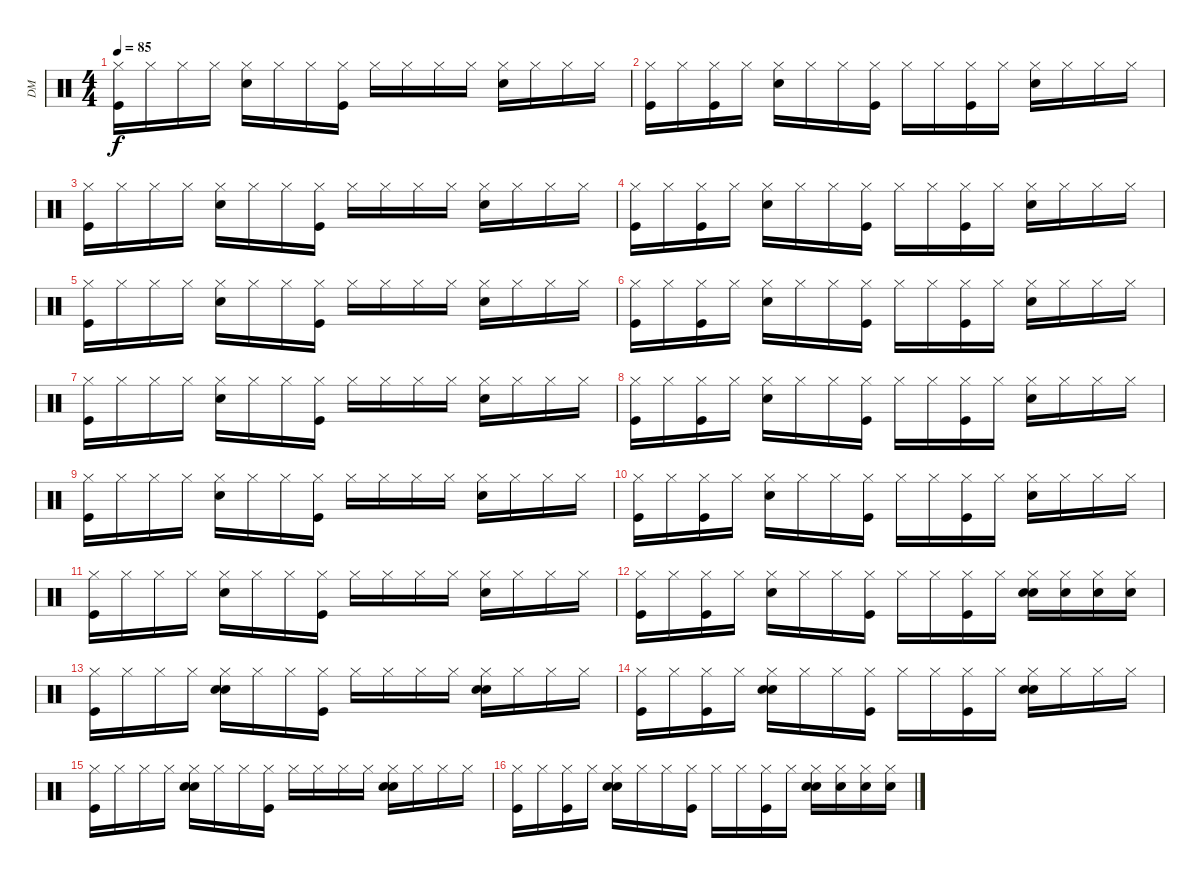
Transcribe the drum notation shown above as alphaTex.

\track ("DM" "DM") {instrument percussion}
\staff {score}
\articulation defaults
\ts (4 4)
\tempo 85
\clef neutral
\ks c
("Hi-Hat (closed)" "Kick (hit)").16{dy f} "Hi-Hat (closed)".16 "Hi-Hat (closed)".16 "Hi-Hat (closed)".16 ("Hi-Hat (closed)" "Electric Snare (hit)").16 "Hi-Hat (closed)".16 "Hi-Hat (closed)".16 ("Hi-Hat (closed)" "Kick (hit)").16 "Hi-Hat (closed)".16 "Hi-Hat (closed)".16 "Hi-Hat (closed)".16 "Hi-Hat (closed)".16 ("Hi-Hat (closed)" "Electric Snare (hit)").16 "Hi-Hat (closed)".16 "Hi-Hat (closed)".16 "Hi-Hat (closed)".16 |
("Hi-Hat (closed)" "Kick (hit)").16 "Hi-Hat (closed)".16 ("Hi-Hat (closed)" "Kick (hit)").16 "Hi-Hat (closed)".16 ("Hi-Hat (closed)" "Electric Snare (hit)").16 "Hi-Hat (closed)".16 "Hi-Hat (closed)".16 ("Hi-Hat (closed)" "Kick (hit)").16 "Hi-Hat (closed)".16 "Hi-Hat (closed)".16 ("Hi-Hat (closed)" "Kick (hit)").16 "Hi-Hat (closed)".16 ("Hi-Hat (closed)" "Electric Snare (hit)").16 "Hi-Hat (closed)".16 "Hi-Hat (closed)".16 "Hi-Hat (closed)".16 |
("Hi-Hat (closed)" "Kick (hit)").16 "Hi-Hat (closed)".16 "Hi-Hat (closed)".16 "Hi-Hat (closed)".16 ("Hi-Hat (closed)" "Electric Snare (hit)").16 "Hi-Hat (closed)".16 "Hi-Hat (closed)".16 ("Hi-Hat (closed)" "Kick (hit)").16 "Hi-Hat (closed)".16 "Hi-Hat (closed)".16 "Hi-Hat (closed)".16 "Hi-Hat (closed)".16 ("Hi-Hat (closed)" "Electric Snare (hit)").16 "Hi-Hat (closed)".16 "Hi-Hat (closed)".16 "Hi-Hat (closed)".16 |
("Hi-Hat (closed)" "Kick (hit)").16 "Hi-Hat (closed)".16 ("Hi-Hat (closed)" "Kick (hit)").16 "Hi-Hat (closed)".16 ("Hi-Hat (closed)" "Electric Snare (hit)").16 "Hi-Hat (closed)".16 "Hi-Hat (closed)".16 ("Hi-Hat (closed)" "Kick (hit)").16 "Hi-Hat (closed)".16 "Hi-Hat (closed)".16 ("Hi-Hat (closed)" "Kick (hit)").16 "Hi-Hat (closed)".16 ("Hi-Hat (closed)" "Electric Snare (hit)").16 "Hi-Hat (closed)".16 "Hi-Hat (closed)".16 "Hi-Hat (closed)".16 |
("Hi-Hat (closed)" "Kick (hit)").16 "Hi-Hat (closed)".16 "Hi-Hat (closed)".16 "Hi-Hat (closed)".16 ("Hi-Hat (closed)" "Electric Snare (hit)").16 "Hi-Hat (closed)".16 "Hi-Hat (closed)".16 ("Hi-Hat (closed)" "Kick (hit)").16 "Hi-Hat (closed)".16 "Hi-Hat (closed)".16 "Hi-Hat (closed)".16 "Hi-Hat (closed)".16 ("Hi-Hat (closed)" "Electric Snare (hit)").16 "Hi-Hat (closed)".16 "Hi-Hat (closed)".16 "Hi-Hat (closed)".16 |
("Hi-Hat (closed)" "Kick (hit)").16 "Hi-Hat (closed)".16 ("Hi-Hat (closed)" "Kick (hit)").16 "Hi-Hat (closed)".16 ("Hi-Hat (closed)" "Electric Snare (hit)").16 "Hi-Hat (closed)".16 "Hi-Hat (closed)".16 ("Hi-Hat (closed)" "Kick (hit)").16 "Hi-Hat (closed)".16 "Hi-Hat (closed)".16 ("Hi-Hat (closed)" "Kick (hit)").16 "Hi-Hat (closed)".16 ("Hi-Hat (closed)" "Electric Snare (hit)").16 "Hi-Hat (closed)".16 "Hi-Hat (closed)".16 "Hi-Hat (closed)".16 |
("Hi-Hat (closed)" "Kick (hit)").16 "Hi-Hat (closed)".16 "Hi-Hat (closed)".16 "Hi-Hat (closed)".16 ("Hi-Hat (closed)" "Electric Snare (hit)").16 "Hi-Hat (closed)".16 "Hi-Hat (closed)".16 ("Hi-Hat (closed)" "Kick (hit)").16 "Hi-Hat (closed)".16 "Hi-Hat (closed)".16 "Hi-Hat (closed)".16 "Hi-Hat (closed)".16 ("Hi-Hat (closed)" "Electric Snare (hit)").16 "Hi-Hat (closed)".16 "Hi-Hat (closed)".16 "Hi-Hat (closed)".16 |
("Hi-Hat (closed)" "Kick (hit)").16 "Hi-Hat (closed)".16 ("Hi-Hat (closed)" "Kick (hit)").16 "Hi-Hat (closed)".16 ("Hi-Hat (closed)" "Electric Snare (hit)").16 "Hi-Hat (closed)".16 "Hi-Hat (closed)".16 ("Hi-Hat (closed)" "Kick (hit)").16 "Hi-Hat (closed)".16 "Hi-Hat (closed)".16 ("Hi-Hat (closed)" "Kick (hit)").16 "Hi-Hat (closed)".16 ("Hi-Hat (closed)" "Electric Snare (hit)").16 "Hi-Hat (closed)".16 "Hi-Hat (closed)".16 "Hi-Hat (closed)".16 |
("Hi-Hat (closed)" "Kick (hit)").16 "Hi-Hat (closed)".16 "Hi-Hat (closed)".16 "Hi-Hat (closed)".16 ("Hi-Hat (closed)" "Electric Snare (hit)").16 "Hi-Hat (closed)".16 "Hi-Hat (closed)".16 ("Hi-Hat (closed)" "Kick (hit)").16 "Hi-Hat (closed)".16 "Hi-Hat (closed)".16 "Hi-Hat (closed)".16 "Hi-Hat (closed)".16 ("Hi-Hat (closed)" "Electric Snare (hit)").16 "Hi-Hat (closed)".16 "Hi-Hat (closed)".16 "Hi-Hat (closed)".16 |
("Hi-Hat (closed)" "Kick (hit)").16 "Hi-Hat (closed)".16 ("Hi-Hat (closed)" "Kick (hit)").16 "Hi-Hat (closed)".16 ("Hi-Hat (closed)" "Electric Snare (hit)").16 "Hi-Hat (closed)".16 "Hi-Hat (closed)".16 ("Hi-Hat (closed)" "Kick (hit)").16 "Hi-Hat (closed)".16 "Hi-Hat (closed)".16 ("Hi-Hat (closed)" "Kick (hit)").16 "Hi-Hat (closed)".16 ("Hi-Hat (closed)" "Electric Snare (hit)").16 "Hi-Hat (closed)".16 "Hi-Hat (closed)".16 "Hi-Hat (closed)".16 |
("Hi-Hat (closed)" "Kick (hit)").16 "Hi-Hat (closed)".16 "Hi-Hat (closed)".16 "Hi-Hat (closed)".16 ("Hi-Hat (closed)" "Electric Snare (hit)").16 "Hi-Hat (closed)".16 "Hi-Hat (closed)".16 ("Hi-Hat (closed)" "Kick (hit)").16 "Hi-Hat (closed)".16 "Hi-Hat (closed)".16 "Hi-Hat (closed)".16 "Hi-Hat (closed)".16 ("Hi-Hat (closed)" "Electric Snare (hit)").16 "Hi-Hat (closed)".16 "Hi-Hat (closed)".16 "Hi-Hat (closed)".16 |
("Hi-Hat (closed)" "Kick (hit)").16 "Hi-Hat (closed)".16 ("Hi-Hat (closed)" "Kick (hit)").16 "Hi-Hat (closed)".16 ("Hi-Hat (closed)" "Electric Snare (hit)").16 "Hi-Hat (closed)".16 "Hi-Hat (closed)".16 ("Hi-Hat (closed)" "Kick (hit)").16 "Hi-Hat (closed)".16 "Hi-Hat (closed)".16 ("Hi-Hat (closed)" "Kick (hit)").16 "Hi-Hat (closed)".16 ("Hi-Hat (closed)" "Electric Snare (hit)" "Hand Clap (hit)").16 ("Hi-Hat (closed)" "Hand Clap (hit)").16 ("Hi-Hat (closed)" "Hand Clap (hit)").16 ("Hi-Hat (closed)" "Hand Clap (hit)").16 |
("Hi-Hat (closed)" "Kick (hit)").16 "Hi-Hat (closed)".16 "Hi-Hat (closed)".16 "Hi-Hat (closed)".16 ("Hi-Hat (closed)" "Electric Snare (hit)" "Hand Clap (hit)").16 "Hi-Hat (closed)".16 "Hi-Hat (closed)".16 ("Hi-Hat (closed)" "Kick (hit)").16 "Hi-Hat (closed)".16 "Hi-Hat (closed)".16 "Hi-Hat (closed)".16 "Hi-Hat (closed)".16 ("Hi-Hat (closed)" "Electric Snare (hit)" "Hand Clap (hit)").16 "Hi-Hat (closed)".16 "Hi-Hat (closed)".16 "Hi-Hat (closed)".16 |
("Hi-Hat (closed)" "Kick (hit)").16 "Hi-Hat (closed)".16 ("Hi-Hat (closed)" "Kick (hit)").16 "Hi-Hat (closed)".16 ("Hi-Hat (closed)" "Electric Snare (hit)" "Hand Clap (hit)").16 "Hi-Hat (closed)".16 "Hi-Hat (closed)".16 ("Hi-Hat (closed)" "Kick (hit)").16 "Hi-Hat (closed)".16 "Hi-Hat (closed)".16 ("Hi-Hat (closed)" "Kick (hit)").16 "Hi-Hat (closed)".16 ("Hi-Hat (closed)" "Hand Clap (hit)" "Hand Clap (hit)").16 "Hi-Hat (closed)".16 "Hi-Hat (closed)".16 "Hi-Hat (closed)".16 |
("Hi-Hat (closed)" "Kick (hit)").16 "Hi-Hat (closed)".16 "Hi-Hat (closed)".16 "Hi-Hat (closed)".16 ("Hi-Hat (closed)" "Electric Snare (hit)" "Hand Clap (hit)").16 "Hi-Hat (closed)".16 "Hi-Hat (closed)".16 ("Hi-Hat (closed)" "Kick (hit)").16 "Hi-Hat (closed)".16 "Hi-Hat (closed)".16 "Hi-Hat (closed)".16 "Hi-Hat (closed)".16 ("Hi-Hat (closed)" "Electric Snare (hit)" "Hand Clap (hit)").16 "Hi-Hat (closed)".16 "Hi-Hat (closed)".16 "Hi-Hat (closed)".16 |
("Hi-Hat (closed)" "Kick (hit)").16 "Hi-Hat (closed)".16 ("Hi-Hat (closed)" "Kick (hit)").16 "Hi-Hat (closed)".16 ("Hi-Hat (closed)" "Electric Snare (hit)" "Hand Clap (hit)").16 "Hi-Hat (closed)".16 "Hi-Hat (closed)".16 ("Hi-Hat (closed)" "Kick (hit)").16 "Hi-Hat (closed)".16 "Hi-Hat (closed)".16 ("Hi-Hat (closed)" "Kick (hit)").16 "Hi-Hat (closed)".16 ("Hi-Hat (closed)" "Electric Snare (hit)" "Hand Clap (hit)").16 ("Hi-Hat (closed)" "Hand Clap (hit)").16 ("Hi-Hat (closed)" "Hand Clap (hit)").16 ("Hi-Hat (closed)" "Hand Clap (hit)").16
